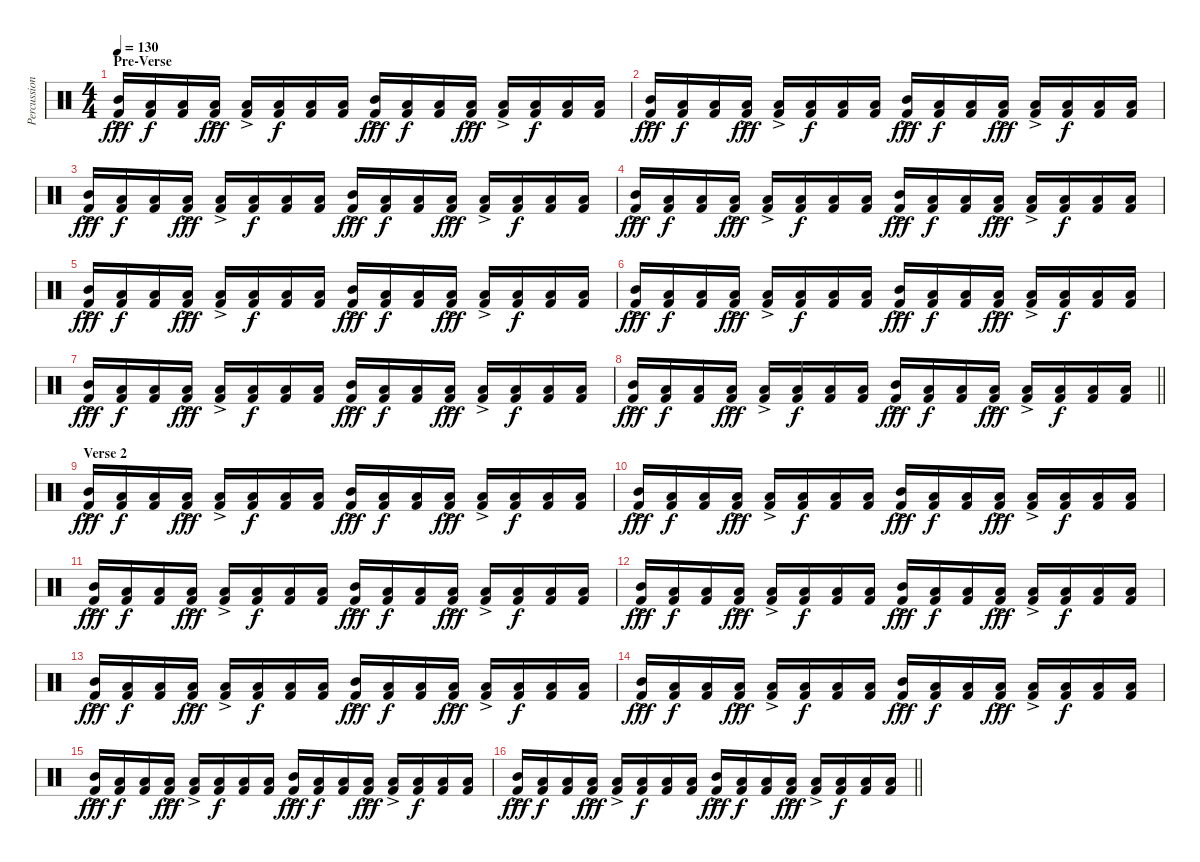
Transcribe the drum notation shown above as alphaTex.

\track ("Percussion" "Percussion") {instrument percussion}
\staff {score}
\articulation defaults
\ts (4 4)
\section ("" "Pre-Verse")
\tempo 130
\clef neutral
\ks c
("Mid Tom (hit)"{ac} "Kick (hit) 2").16{dy fff} ("Low Floor Tom (hit)" "Kick (hit) 2").16{dy f} ("Low Floor Tom (hit)" "Kick (hit) 2").16 ("Low Tom (hit)"{ac} "Kick (hit) 2").16{dy fff} ("Low Tom (hit)"{ac} "Kick (hit) 2").16 ("Low Floor Tom (hit)" "Kick (hit) 2").16{dy f} ("Low Floor Tom (hit)" "Kick (hit) 2").16 ("Low Floor Tom (hit)" "Kick (hit) 2").16 ("Mid Tom (hit)"{ac} "Kick (hit) 2").16{dy fff} ("Low Floor Tom (hit)" "Kick (hit) 2").16{dy f} ("Low Floor Tom (hit)" "Kick (hit) 2").16 ("Low Tom (hit)"{ac} "Kick (hit) 2").16{dy fff} ("Low Tom (hit)"{ac} "Kick (hit) 2").16 ("Low Floor Tom (hit)" "Kick (hit) 2").16{dy f} ("Low Floor Tom (hit)" "Kick (hit) 2").16 ("Low Floor Tom (hit)" "Kick (hit) 2").16 |
("Mid Tom (hit)"{ac} "Kick (hit) 2").16{dy fff} ("Low Floor Tom (hit)" "Kick (hit) 2").16{dy f} ("Low Floor Tom (hit)" "Kick (hit) 2").16 ("Low Tom (hit)"{ac} "Kick (hit) 2").16{dy fff} ("Low Tom (hit)"{ac} "Kick (hit) 2").16 ("Low Floor Tom (hit)" "Kick (hit) 2").16{dy f} ("Low Floor Tom (hit)" "Kick (hit) 2").16 ("Low Floor Tom (hit)" "Kick (hit) 2").16 ("Mid Tom (hit)"{ac} "Kick (hit) 2").16{dy fff} ("Low Floor Tom (hit)" "Kick (hit) 2").16{dy f} ("Low Floor Tom (hit)" "Kick (hit) 2").16 ("Low Tom (hit)"{ac} "Kick (hit) 2").16{dy fff} ("Low Tom (hit)"{ac} "Kick (hit) 2").16 ("Low Floor Tom (hit)" "Kick (hit) 2").16{dy f} ("Low Floor Tom (hit)" "Kick (hit) 2").16 ("Low Floor Tom (hit)" "Kick (hit) 2").16 |
("Mid Tom (hit)"{ac} "Kick (hit) 2").16{dy fff} ("Low Floor Tom (hit)" "Kick (hit) 2").16{dy f} ("Low Floor Tom (hit)" "Kick (hit) 2").16 ("Low Tom (hit)"{ac} "Kick (hit) 2").16{dy fff} ("Low Tom (hit)"{ac} "Kick (hit) 2").16 ("Low Floor Tom (hit)" "Kick (hit) 2").16{dy f} ("Low Floor Tom (hit)" "Kick (hit) 2").16 ("Low Floor Tom (hit)" "Kick (hit) 2").16 ("Mid Tom (hit)"{ac} "Kick (hit) 2").16{dy fff} ("Low Floor Tom (hit)" "Kick (hit) 2").16{dy f} ("Low Floor Tom (hit)" "Kick (hit) 2").16 ("Low Tom (hit)"{ac} "Kick (hit) 2").16{dy fff} ("Low Tom (hit)"{ac} "Kick (hit) 2").16 ("Low Floor Tom (hit)" "Kick (hit) 2").16{dy f} ("Low Floor Tom (hit)" "Kick (hit) 2").16 ("Low Floor Tom (hit)" "Kick (hit) 2").16 |
("Mid Tom (hit)"{ac} "Kick (hit) 2").16{dy fff} ("Low Floor Tom (hit)" "Kick (hit) 2").16{dy f} ("Low Floor Tom (hit)" "Kick (hit) 2").16 ("Low Tom (hit)"{ac} "Kick (hit) 2").16{dy fff} ("Low Tom (hit)"{ac} "Kick (hit) 2").16 ("Low Floor Tom (hit)" "Kick (hit) 2").16{dy f} ("Low Floor Tom (hit)" "Kick (hit) 2").16 ("Low Floor Tom (hit)" "Kick (hit) 2").16 ("Mid Tom (hit)"{ac} "Kick (hit) 2").16{dy fff} ("Low Floor Tom (hit)" "Kick (hit) 2").16{dy f} ("Low Floor Tom (hit)" "Kick (hit) 2").16 ("Low Tom (hit)"{ac} "Kick (hit) 2").16{dy fff} ("Low Tom (hit)"{ac} "Kick (hit) 2").16 ("Low Floor Tom (hit)" "Kick (hit) 2").16{dy f} ("Low Floor Tom (hit)" "Kick (hit) 2").16 ("Low Floor Tom (hit)" "Kick (hit) 2").16 |
("Mid Tom (hit)"{ac} "Kick (hit) 2").16{dy fff} ("Low Floor Tom (hit)" "Kick (hit) 2").16{dy f} ("Low Floor Tom (hit)" "Kick (hit) 2").16 ("Low Tom (hit)"{ac} "Kick (hit) 2").16{dy fff} ("Low Tom (hit)"{ac} "Kick (hit) 2").16 ("Low Floor Tom (hit)" "Kick (hit) 2").16{dy f} ("Low Floor Tom (hit)" "Kick (hit) 2").16 ("Low Floor Tom (hit)" "Kick (hit) 2").16 ("Mid Tom (hit)"{ac} "Kick (hit) 2").16{dy fff} ("Low Floor Tom (hit)" "Kick (hit) 2").16{dy f} ("Low Floor Tom (hit)" "Kick (hit) 2").16 ("Low Tom (hit)"{ac} "Kick (hit) 2").16{dy fff} ("Low Tom (hit)"{ac} "Kick (hit) 2").16 ("Low Floor Tom (hit)" "Kick (hit) 2").16{dy f} ("Low Floor Tom (hit)" "Kick (hit) 2").16 ("Low Floor Tom (hit)" "Kick (hit) 2").16 |
("Mid Tom (hit)"{ac} "Kick (hit) 2").16{dy fff} ("Low Floor Tom (hit)" "Kick (hit) 2").16{dy f} ("Low Floor Tom (hit)" "Kick (hit) 2").16 ("Low Tom (hit)"{ac} "Kick (hit) 2").16{dy fff} ("Low Tom (hit)"{ac} "Kick (hit) 2").16 ("Low Floor Tom (hit)" "Kick (hit) 2").16{dy f} ("Low Floor Tom (hit)" "Kick (hit) 2").16 ("Low Floor Tom (hit)" "Kick (hit) 2").16 ("Mid Tom (hit)"{ac} "Kick (hit) 2").16{dy fff} ("Low Floor Tom (hit)" "Kick (hit) 2").16{dy f} ("Low Floor Tom (hit)" "Kick (hit) 2").16 ("Low Tom (hit)"{ac} "Kick (hit) 2").16{dy fff} ("Low Tom (hit)"{ac} "Kick (hit) 2").16 ("Low Floor Tom (hit)" "Kick (hit) 2").16{dy f} ("Low Floor Tom (hit)" "Kick (hit) 2").16 ("Low Floor Tom (hit)" "Kick (hit) 2").16 |
("Mid Tom (hit)"{ac} "Kick (hit) 2").16{dy fff} ("Low Floor Tom (hit)" "Kick (hit) 2").16{dy f} ("Low Floor Tom (hit)" "Kick (hit) 2").16 ("Low Tom (hit)"{ac} "Kick (hit) 2").16{dy fff} ("Low Tom (hit)"{ac} "Kick (hit) 2").16 ("Low Floor Tom (hit)" "Kick (hit) 2").16{dy f} ("Low Floor Tom (hit)" "Kick (hit) 2").16 ("Low Floor Tom (hit)" "Kick (hit) 2").16 ("Mid Tom (hit)"{ac} "Kick (hit) 2").16{dy fff} ("Low Floor Tom (hit)" "Kick (hit) 2").16{dy f} ("Low Floor Tom (hit)" "Kick (hit) 2").16 ("Low Tom (hit)"{ac} "Kick (hit) 2").16{dy fff} ("Low Tom (hit)"{ac} "Kick (hit) 2").16 ("Low Floor Tom (hit)" "Kick (hit) 2").16{dy f} ("Low Floor Tom (hit)" "Kick (hit) 2").16 ("Low Floor Tom (hit)" "Kick (hit) 2").16 |
\barLineRight lightlight
("Mid Tom (hit)"{ac} "Kick (hit) 2").16{dy fff} ("Low Floor Tom (hit)" "Kick (hit) 2").16{dy f} ("Low Floor Tom (hit)" "Kick (hit) 2").16 ("Low Tom (hit)"{ac} "Kick (hit) 2").16{dy fff} ("Low Tom (hit)"{ac} "Kick (hit) 2").16 ("Low Floor Tom (hit)" "Kick (hit) 2").16{dy f} ("Low Floor Tom (hit)" "Kick (hit) 2").16 ("Low Floor Tom (hit)" "Kick (hit) 2").16 ("Mid Tom (hit)"{ac} "Kick (hit) 2").16{dy fff} ("Low Floor Tom (hit)" "Kick (hit) 2").16{dy f} ("Low Floor Tom (hit)" "Kick (hit) 2").16 ("Low Tom (hit)"{ac} "Kick (hit) 2").16{dy fff} ("Low Tom (hit)"{ac} "Kick (hit) 2").16 ("Low Floor Tom (hit)" "Kick (hit) 2").16{dy f} ("Low Floor Tom (hit)" "Kick (hit) 2").16 ("Low Floor Tom (hit)" "Kick (hit) 2").16 |
\section ("" "Verse 2")
("Mid Tom (hit)"{ac} "Kick (hit) 2").16{dy fff} ("Low Floor Tom (hit)" "Kick (hit) 2").16{dy f} ("Low Floor Tom (hit)" "Kick (hit) 2").16 ("Low Tom (hit)"{ac} "Kick (hit) 2").16{dy fff} ("Low Tom (hit)"{ac} "Kick (hit) 2").16 ("Low Floor Tom (hit)" "Kick (hit) 2").16{dy f} ("Low Floor Tom (hit)" "Kick (hit) 2").16 ("Low Floor Tom (hit)" "Kick (hit) 2").16 ("Mid Tom (hit)"{ac} "Kick (hit) 2").16{dy fff} ("Low Floor Tom (hit)" "Kick (hit) 2").16{dy f} ("Low Floor Tom (hit)" "Kick (hit) 2").16 ("Low Tom (hit)"{ac} "Kick (hit) 2").16{dy fff} ("Low Tom (hit)"{ac} "Kick (hit) 2").16 ("Low Floor Tom (hit)" "Kick (hit) 2").16{dy f} ("Low Floor Tom (hit)" "Kick (hit) 2").16 ("Low Floor Tom (hit)" "Kick (hit) 2").16 |
("Mid Tom (hit)"{ac} "Kick (hit) 2").16{dy fff} ("Low Floor Tom (hit)" "Kick (hit) 2").16{dy f} ("Low Floor Tom (hit)" "Kick (hit) 2").16 ("Low Tom (hit)"{ac} "Kick (hit) 2").16{dy fff} ("Low Tom (hit)"{ac} "Kick (hit) 2").16 ("Low Floor Tom (hit)" "Kick (hit) 2").16{dy f} ("Low Floor Tom (hit)" "Kick (hit) 2").16 ("Low Floor Tom (hit)" "Kick (hit) 2").16 ("Mid Tom (hit)"{ac} "Kick (hit) 2").16{dy fff} ("Low Floor Tom (hit)" "Kick (hit) 2").16{dy f} ("Low Floor Tom (hit)" "Kick (hit) 2").16 ("Low Tom (hit)"{ac} "Kick (hit) 2").16{dy fff} ("Low Tom (hit)"{ac} "Kick (hit) 2").16 ("Low Floor Tom (hit)" "Kick (hit) 2").16{dy f} ("Low Floor Tom (hit)" "Kick (hit) 2").16 ("Low Floor Tom (hit)" "Kick (hit) 2").16 |
("Mid Tom (hit)"{ac} "Kick (hit) 2").16{dy fff} ("Low Floor Tom (hit)" "Kick (hit) 2").16{dy f} ("Low Floor Tom (hit)" "Kick (hit) 2").16 ("Low Tom (hit)"{ac} "Kick (hit) 2").16{dy fff} ("Low Tom (hit)"{ac} "Kick (hit) 2").16 ("Low Floor Tom (hit)" "Kick (hit) 2").16{dy f} ("Low Floor Tom (hit)" "Kick (hit) 2").16 ("Low Floor Tom (hit)" "Kick (hit) 2").16 ("Mid Tom (hit)"{ac} "Kick (hit) 2").16{dy fff} ("Low Floor Tom (hit)" "Kick (hit) 2").16{dy f} ("Low Floor Tom (hit)" "Kick (hit) 2").16 ("Low Tom (hit)"{ac} "Kick (hit) 2").16{dy fff} ("Low Tom (hit)"{ac} "Kick (hit) 2").16 ("Low Floor Tom (hit)" "Kick (hit) 2").16{dy f} ("Low Floor Tom (hit)" "Kick (hit) 2").16 ("Low Floor Tom (hit)" "Kick (hit) 2").16 |
("Mid Tom (hit)"{ac} "Kick (hit) 2").16{dy fff} ("Low Floor Tom (hit)" "Kick (hit) 2").16{dy f} ("Low Floor Tom (hit)" "Kick (hit) 2").16 ("Low Tom (hit)"{ac} "Kick (hit) 2").16{dy fff} ("Low Tom (hit)"{ac} "Kick (hit) 2").16 ("Low Floor Tom (hit)" "Kick (hit) 2").16{dy f} ("Low Floor Tom (hit)" "Kick (hit) 2").16 ("Low Floor Tom (hit)" "Kick (hit) 2").16 ("Mid Tom (hit)"{ac} "Kick (hit) 2").16{dy fff} ("Low Floor Tom (hit)" "Kick (hit) 2").16{dy f} ("Low Floor Tom (hit)" "Kick (hit) 2").16 ("Low Tom (hit)"{ac} "Kick (hit) 2").16{dy fff} ("Low Tom (hit)"{ac} "Kick (hit) 2").16 ("Low Floor Tom (hit)" "Kick (hit) 2").16{dy f} ("Low Floor Tom (hit)" "Kick (hit) 2").16 ("Low Floor Tom (hit)" "Kick (hit) 2").16 |
("Mid Tom (hit)"{ac} "Kick (hit) 2").16{dy fff} ("Low Floor Tom (hit)" "Kick (hit) 2").16{dy f} ("Low Floor Tom (hit)" "Kick (hit) 2").16 ("Low Tom (hit)"{ac} "Kick (hit) 2").16{dy fff} ("Low Tom (hit)"{ac} "Kick (hit) 2").16 ("Low Floor Tom (hit)" "Kick (hit) 2").16{dy f} ("Low Floor Tom (hit)" "Kick (hit) 2").16 ("Low Floor Tom (hit)" "Kick (hit) 2").16 ("Mid Tom (hit)"{ac} "Kick (hit) 2").16{dy fff} ("Low Floor Tom (hit)" "Kick (hit) 2").16{dy f} ("Low Floor Tom (hit)" "Kick (hit) 2").16 ("Low Tom (hit)"{ac} "Kick (hit) 2").16{dy fff} ("Low Tom (hit)"{ac} "Kick (hit) 2").16 ("Low Floor Tom (hit)" "Kick (hit) 2").16{dy f} ("Low Floor Tom (hit)" "Kick (hit) 2").16 ("Low Floor Tom (hit)" "Kick (hit) 2").16 |
("Mid Tom (hit)"{ac} "Kick (hit) 2").16{dy fff} ("Low Floor Tom (hit)" "Kick (hit) 2").16{dy f} ("Low Floor Tom (hit)" "Kick (hit) 2").16 ("Low Tom (hit)"{ac} "Kick (hit) 2").16{dy fff} ("Low Tom (hit)"{ac} "Kick (hit) 2").16 ("Low Floor Tom (hit)" "Kick (hit) 2").16{dy f} ("Low Floor Tom (hit)" "Kick (hit) 2").16 ("Low Floor Tom (hit)" "Kick (hit) 2").16 ("Mid Tom (hit)"{ac} "Kick (hit) 2").16{dy fff} ("Low Floor Tom (hit)" "Kick (hit) 2").16{dy f} ("Low Floor Tom (hit)" "Kick (hit) 2").16 ("Low Tom (hit)"{ac} "Kick (hit) 2").16{dy fff} ("Low Tom (hit)"{ac} "Kick (hit) 2").16 ("Low Floor Tom (hit)" "Kick (hit) 2").16{dy f} ("Low Floor Tom (hit)" "Kick (hit) 2").16 ("Low Floor Tom (hit)" "Kick (hit) 2").16 |
("Mid Tom (hit)"{ac} "Kick (hit) 2").16{dy fff} ("Low Floor Tom (hit)" "Kick (hit) 2").16{dy f} ("Low Floor Tom (hit)" "Kick (hit) 2").16 ("Low Tom (hit)"{ac} "Kick (hit) 2").16{dy fff} ("Low Tom (hit)"{ac} "Kick (hit) 2").16 ("Low Floor Tom (hit)" "Kick (hit) 2").16{dy f} ("Low Floor Tom (hit)" "Kick (hit) 2").16 ("Low Floor Tom (hit)" "Kick (hit) 2").16 ("Mid Tom (hit)"{ac} "Kick (hit) 2").16{dy fff} ("Low Floor Tom (hit)" "Kick (hit) 2").16{dy f} ("Low Floor Tom (hit)" "Kick (hit) 2").16 ("Low Tom (hit)"{ac} "Kick (hit) 2").16{dy fff} ("Low Tom (hit)"{ac} "Kick (hit) 2").16 ("Low Floor Tom (hit)" "Kick (hit) 2").16{dy f} ("Low Floor Tom (hit)" "Kick (hit) 2").16 ("Low Floor Tom (hit)" "Kick (hit) 2").16 |
\barLineRight lightlight
("Mid Tom (hit)"{ac} "Kick (hit) 2").16{dy fff} ("Low Floor Tom (hit)" "Kick (hit) 2").16{dy f} ("Low Floor Tom (hit)" "Kick (hit) 2").16 ("Low Tom (hit)"{ac} "Kick (hit) 2").16{dy fff} ("Low Tom (hit)"{ac} "Kick (hit) 2").16 ("Low Floor Tom (hit)" "Kick (hit) 2").16{dy f} ("Low Floor Tom (hit)" "Kick (hit) 2").16 ("Low Floor Tom (hit)" "Kick (hit) 2").16 ("Mid Tom (hit)"{ac} "Kick (hit) 2").16{dy fff} ("Low Floor Tom (hit)" "Kick (hit) 2").16{dy f} ("Low Floor Tom (hit)" "Kick (hit) 2").16 ("Low Tom (hit)"{ac} "Kick (hit) 2").16{dy fff} ("Low Tom (hit)"{ac} "Kick (hit) 2").16 ("Low Floor Tom (hit)" "Kick (hit) 2").16{dy f} ("Low Floor Tom (hit)" "Kick (hit) 2").16 ("Low Floor Tom (hit)" "Kick (hit) 2").16
